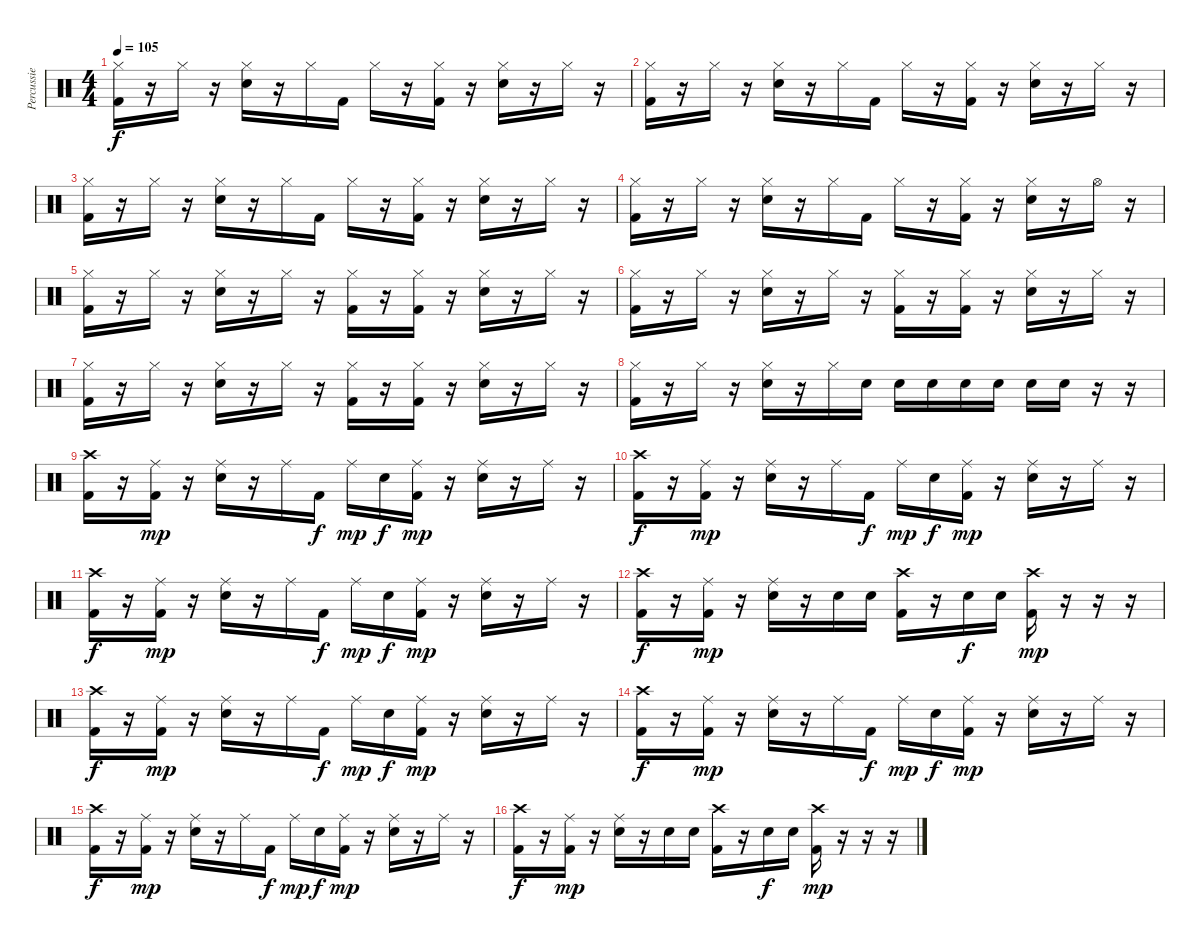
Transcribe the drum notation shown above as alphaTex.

\track ("Percussie" "Percussie") {instrument percussion}
\staff {score}
\articulation defaults
\ts (4 4)
\tempo 105
\clef neutral
\ks c
("Hi-Hat (closed)" "Kick (hit) 2").16{dy f} r.16 "Hi-Hat (closed)".16 r.16 ("Hi-Hat (closed)" "Electric Snare (hit)").16 r.16 "Hi-Hat (closed)".16 "Kick (hit) 2".16 "Hi-Hat (closed)".16 r.16 ("Hi-Hat (closed)" "Kick (hit) 2").16 r.16 ("Hi-Hat (closed)" "Electric Snare (hit)").16 r.16 "Hi-Hat (closed)".16 r.16 |
("Hi-Hat (closed)" "Kick (hit) 2").16 r.16 "Hi-Hat (closed)".16 r.16 ("Hi-Hat (closed)" "Electric Snare (hit)").16 r.16 "Hi-Hat (closed)".16 "Kick (hit) 2".16 "Hi-Hat (closed)".16 r.16 ("Hi-Hat (closed)" "Kick (hit) 2").16 r.16 ("Hi-Hat (closed)" "Electric Snare (hit)").16 r.16 "Hi-Hat (closed)".16 r.16 |
("Hi-Hat (closed)" "Kick (hit) 2").16 r.16 "Hi-Hat (closed)".16 r.16 ("Hi-Hat (closed)" "Electric Snare (hit)").16 r.16 "Hi-Hat (closed)".16 "Kick (hit) 2".16 "Hi-Hat (closed)".16 r.16 ("Hi-Hat (closed)" "Kick (hit) 2").16 r.16 ("Hi-Hat (closed)" "Electric Snare (hit)").16 r.16 "Hi-Hat (closed)".16 r.16 |
("Hi-Hat (closed)" "Kick (hit) 2").16 r.16 "Hi-Hat (closed)".16 r.16 ("Hi-Hat (closed)" "Electric Snare (hit)").16 r.16 "Hi-Hat (closed)".16 "Kick (hit) 2".16 "Hi-Hat (closed)".16 r.16 ("Hi-Hat (closed)" "Kick (hit) 2").16 r.16 ("Hi-Hat (closed)" "Electric Snare (hit)").16 r.16 "Hi-Hat (open)".16 r.16 |
("Hi-Hat (closed)" "Kick (hit) 2").16 r.16 "Hi-Hat (closed)".16 r.16 ("Hi-Hat (closed)" "Electric Snare (hit)").16 r.16 "Hi-Hat (closed)".16 r.16 ("Hi-Hat (closed)" "Kick (hit) 2").16 r.16 ("Hi-Hat (closed)" "Kick (hit) 2").16 r.16 ("Hi-Hat (closed)" "Electric Snare (hit)").16 r.16 "Hi-Hat (closed)".16 r.16 |
("Hi-Hat (closed)" "Kick (hit) 2").16 r.16 "Hi-Hat (closed)".16 r.16 ("Hi-Hat (closed)" "Electric Snare (hit)").16 r.16 "Hi-Hat (closed)".16 r.16 ("Hi-Hat (closed)" "Kick (hit) 2").16 r.16 ("Hi-Hat (closed)" "Kick (hit) 2").16 r.16 ("Hi-Hat (closed)" "Electric Snare (hit)").16 r.16 "Hi-Hat (closed)".16 r.16 |
("Hi-Hat (closed)" "Kick (hit) 2").16 r.16 "Hi-Hat (closed)".16 r.16 ("Hi-Hat (closed)" "Electric Snare (hit)").16 r.16 "Hi-Hat (closed)".16 r.16 ("Hi-Hat (closed)" "Kick (hit) 2").16 r.16 ("Hi-Hat (closed)" "Kick (hit) 2").16 r.16 ("Hi-Hat (closed)" "Electric Snare (hit)").16 r.16 "Hi-Hat (closed)".16 r.16 |
("Hi-Hat (closed)" "Kick (hit) 2").16 r.16 "Hi-Hat (closed)".16 r.16 ("Hi-Hat (closed)" "Electric Snare (hit)").16 r.16 "Hi-Hat (closed)".16 "Electric Snare (hit)".16 "Electric Snare (hit)".16 "Electric Snare (hit)".16 "Electric Snare (hit)".16 "Electric Snare (hit)".16 "Electric Snare (hit)".16 "Electric Snare (hit)".16 r.16 r.16 |
("Crash high (hit)" "Kick (hit) 2").16 r.16 ("Ride (middle)" "Kick (hit) 2").16{dy mp} r.16 ("Ride (middle)" "Electric Snare (hit)").16 r.16 "Ride (middle)".16 "Kick (hit) 2".16{dy f} "Ride (middle)".16{dy mp} "Electric Snare (hit)".16{dy f} ("Ride (middle)" "Kick (hit) 2").16{dy mp} r.16 ("Ride (middle)" "Electric Snare (hit)").16 r.16 "Ride (middle)".16 r.16 |
("Crash high (hit)" "Kick (hit) 2").16{dy f} r.16 ("Ride (middle)" "Kick (hit) 2").16{dy mp} r.16 ("Ride (middle)" "Electric Snare (hit)").16 r.16 "Ride (middle)".16 "Kick (hit) 2".16{dy f} "Ride (middle)".16{dy mp} "Electric Snare (hit)".16{dy f} ("Ride (middle)" "Kick (hit) 2").16{dy mp} r.16 ("Ride (middle)" "Electric Snare (hit)").16 r.16 "Ride (middle)".16 r.16 |
("Crash high (hit)" "Kick (hit) 2").16{dy f} r.16 ("Ride (middle)" "Kick (hit) 2").16{dy mp} r.16 ("Ride (middle)" "Electric Snare (hit)").16 r.16 "Ride (middle)".16 "Kick (hit) 2".16{dy f} "Ride (middle)".16{dy mp} "Electric Snare (hit)".16{dy f} ("Ride (middle)" "Kick (hit) 2").16{dy mp} r.16 ("Ride (middle)" "Electric Snare (hit)").16 r.16 "Ride (middle)".16 r.16 |
("Crash high (hit)" "Kick (hit) 2").16{dy f} r.16 ("Ride (middle)" "Kick (hit) 2").16{dy mp} r.16 ("Ride (middle)" "Electric Snare (hit)").16 r.16 "Electric Snare (hit)".16 "Electric Snare (hit)".16 ("Crash high (hit)" "Kick (hit) 2").16 r.16 "Electric Snare (hit)".16{dy f} "Electric Snare (hit)".16 ("Crash high (hit)" "Kick (hit) 2").16{dy mp} r.16 r.16 r.16 |
("Crash high (hit)" "Kick (hit) 2").16{dy f} r.16 ("Ride (middle)" "Kick (hit) 2").16{dy mp} r.16 ("Ride (middle)" "Electric Snare (hit)").16 r.16 "Ride (middle)".16 "Kick (hit) 2".16{dy f} "Ride (middle)".16{dy mp} "Electric Snare (hit)".16{dy f} ("Ride (middle)" "Kick (hit) 2").16{dy mp} r.16 ("Ride (middle)" "Electric Snare (hit)").16 r.16 "Ride (middle)".16 r.16 |
("Crash high (hit)" "Kick (hit) 2").16{dy f} r.16 ("Ride (middle)" "Kick (hit) 2").16{dy mp} r.16 ("Ride (middle)" "Electric Snare (hit)").16 r.16 "Ride (middle)".16 "Kick (hit) 2".16{dy f} "Ride (middle)".16{dy mp} "Electric Snare (hit)".16{dy f} ("Ride (middle)" "Kick (hit) 2").16{dy mp} r.16 ("Ride (middle)" "Electric Snare (hit)").16 r.16 "Ride (middle)".16 r.16 |
("Crash high (hit)" "Kick (hit) 2").16{dy f} r.16 ("Ride (middle)" "Kick (hit) 2").16{dy mp} r.16 ("Ride (middle)" "Electric Snare (hit)").16 r.16 "Ride (middle)".16 "Kick (hit) 2".16{dy f} "Ride (middle)".16{dy mp} "Electric Snare (hit)".16{dy f} ("Ride (middle)" "Kick (hit) 2").16{dy mp} r.16 ("Ride (middle)" "Electric Snare (hit)").16 r.16 "Ride (middle)".16 r.16 |
("Crash high (hit)" "Kick (hit) 2").16{dy f} r.16 ("Ride (middle)" "Kick (hit) 2").16{dy mp} r.16 ("Ride (middle)" "Electric Snare (hit)").16 r.16 "Electric Snare (hit)".16 "Electric Snare (hit)".16 ("Crash high (hit)" "Kick (hit) 2").16 r.16 "Electric Snare (hit)".16{dy f} "Electric Snare (hit)".16 ("Crash high (hit)" "Kick (hit) 2").16{dy mp} r.16 r.16 r.16
